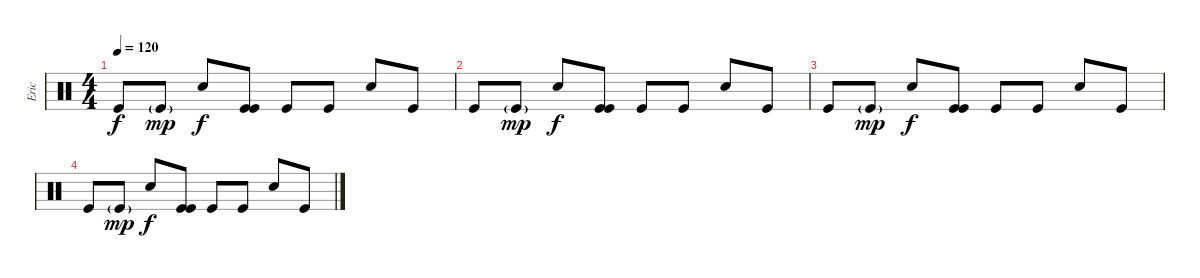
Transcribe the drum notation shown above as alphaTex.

\track ("Eric" "Eric") {instrument percussion}
\staff {score}
\articulation defaults
\ts (4 4)
\tempo 120
\clef neutral
\ks c "Kick (hit)".8{dy f} "Kick (hit)"{g}.8{dy mp} "Electric Snare (hit)".8{dy f}
("Kick (hit)" "Kick (hit)").8 "Kick (hit)".8 "Kick (hit)".8 "Electric Snare (hit)".8 "Kick (hit)".8 |
"Kick (hit)".8 "Kick (hit)"{g}.8{dy mp} "Electric Snare (hit)".8{dy f} ("Kick (hit)" "Kick (hit)").8 "Kick (hit)".8 "Kick (hit)".8 "Electric Snare (hit)".8 "Kick (hit)".8 |
"Kick (hit)".8 "Kick (hit)"{g}.8{dy mp} "Electric Snare (hit)".8{dy f} ("Kick (hit)" "Kick (hit)").8 "Kick (hit)".8 "Kick (hit)".8 "Electric Snare (hit)".8 "Kick (hit)".8 |
"Kick (hit)".8 "Kick (hit)"{g}.8{dy mp} "Electric Snare (hit)".8{dy f} ("Kick (hit)" "Kick (hit)").8 "Kick (hit)".8 "Kick (hit)".8 "Electric Snare (hit)".8 "Kick (hit)".8
